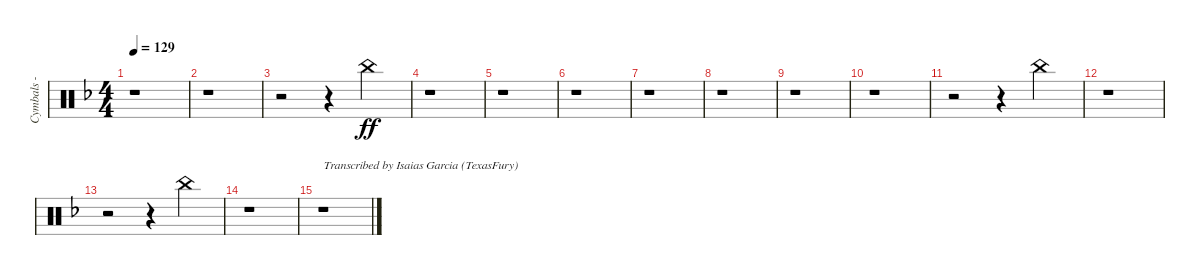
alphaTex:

\track ("Cymbals - china" "Cymbals - ") {instrument percussion}
\staff {score}
\articulation defaults
\ts (4 4)
\tempo 129
\clef neutral
\ks dminor
r.1{dy ff} |
r.1 |
r.2 r.4{beam merge} "China (hit)".4 |
r.1 |
r.1 |
r.1 |
r.1 |
r.1 |
r.1 |
r.1 |
r.2 r.4 "China (hit)".4 |
r.1 |
r.2 r.4 "China (hit)".4 |
r.1 |
r.1{txt "Transcribed by Isaias Garcia (TexasFury)"}
